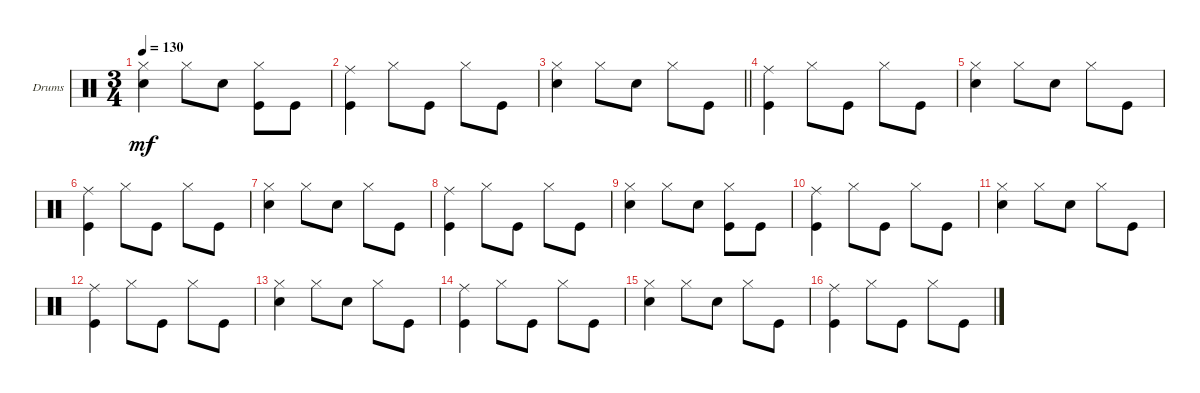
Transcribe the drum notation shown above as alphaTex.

\defaultSystemsLayout 4
\bracketExtendMode groupsimilarinstruments
\firstSystemTrackNameOrientation horizontal
\otherSystemsTrackNameOrientation horizontal
\chordDiagramsInScore
\track ("Drumkit" "Drums") {instrument percussion}
\staff {score}
\articulation defaults
\ts (3 4)
\tempo 130
\clef neutral
\ks c
("Hi-Hat (closed)" "Snare (hit) 2").4{dy mf} "Hi-Hat (closed)".8 "Snare (hit) 2".8 ("Kick (hit)" "Hi-Hat (closed)").8 "Kick (hit)".8 |
("Kick (hit)" "Ride (middle)").4 "Hi-Hat (closed)".8 "Kick (hit)".8 "Hi-Hat (closed)".8 "Kick (hit)".8 |
\barLineRight lightlight
("Hi-Hat (closed)" "Snare (hit) 2").4 "Hi-Hat (closed)".8 "Snare (hit) 2".8 "Hi-Hat (closed)".8 "Kick (hit)".8 |
("Kick (hit)" "Ride (middle)").4 "Hi-Hat (closed)".8 "Kick (hit)".8 "Hi-Hat (closed)".8 "Kick (hit)".8 |
("Hi-Hat (closed)" "Snare (hit) 2").4 "Hi-Hat (closed)".8 "Snare (hit) 2".8 "Hi-Hat (closed)".8 "Kick (hit)".8 |
("Kick (hit)" "Ride (middle)").4 "Hi-Hat (closed)".8 "Kick (hit)".8 "Hi-Hat (closed)".8 "Kick (hit)".8 |
("Hi-Hat (closed)" "Snare (hit) 2").4 "Hi-Hat (closed)".8 "Snare (hit) 2".8 "Hi-Hat (closed)".8 "Kick (hit)".8 |
("Kick (hit)" "Ride (middle)").4 "Hi-Hat (closed)".8 "Kick (hit)".8 "Hi-Hat (closed)".8 "Kick (hit)".8 |
("Hi-Hat (closed)" "Snare (hit) 2").4 "Hi-Hat (closed)".8 "Snare (hit) 2".8 ("Kick (hit)" "Hi-Hat (closed)").8 "Kick (hit)".8 |
("Kick (hit)" "Ride (middle)").4 "Hi-Hat (closed)".8 "Kick (hit)".8 "Hi-Hat (closed)".8 "Kick (hit)".8 |
("Hi-Hat (closed)" "Snare (hit) 2").4 "Hi-Hat (closed)".8 "Snare (hit) 2".8 "Hi-Hat (closed)".8 "Kick (hit)".8 |
("Kick (hit)" "Ride (middle)").4 "Hi-Hat (closed)".8 "Kick (hit)".8 "Hi-Hat (closed)".8 "Kick (hit)".8 |
("Hi-Hat (closed)" "Snare (hit) 2").4 "Hi-Hat (closed)".8 "Snare (hit) 2".8 "Hi-Hat (closed)".8 "Kick (hit)".8 |
("Kick (hit)" "Ride (middle)").4 "Hi-Hat (closed)".8 "Kick (hit)".8 "Hi-Hat (closed)".8 "Kick (hit)".8 |
("Hi-Hat (closed)" "Snare (hit) 2").4 "Hi-Hat (closed)".8 "Snare (hit) 2".8 "Hi-Hat (closed)".8 "Kick (hit)".8 |
("Kick (hit)" "Ride (middle)").4 "Hi-Hat (closed)".8 "Kick (hit)".8 "Hi-Hat (closed)".8 "Kick (hit)".8
